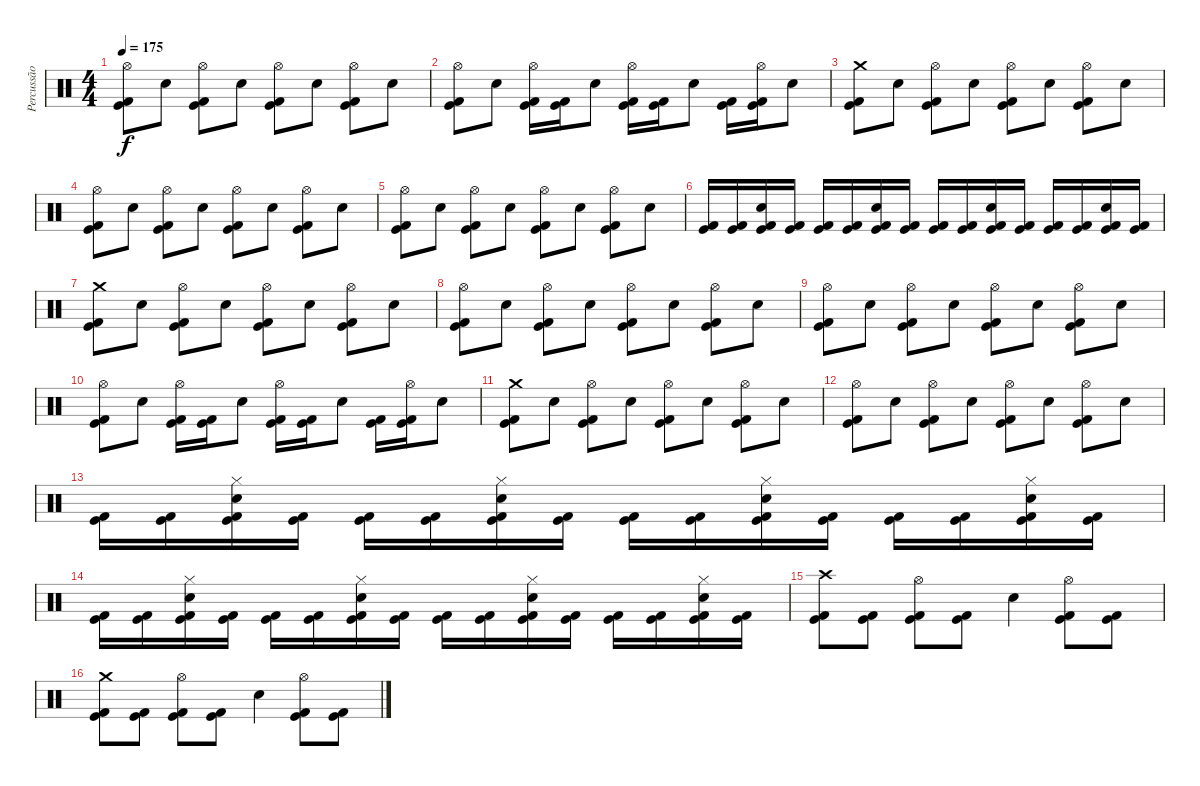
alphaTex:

\track ("Percussão" "Percussão") {instrument percussion}
\staff {score}
\articulation defaults
\ts (4 4)
\tempo 175
\clef neutral
\ks c
("Hi-Hat (open)" "Kick (hit) 2" "Kick (hit)").8{dy f} "Electric Snare (hit)".8 ("Hi-Hat (open)" "Kick (hit) 2" "Kick (hit)").8 "Electric Snare (hit)".8 ("Hi-Hat (open)" "Kick (hit) 2" "Kick (hit)").8 "Electric Snare (hit)".8 ("Hi-Hat (open)" "Kick (hit) 2" "Kick (hit)").8 "Electric Snare (hit)".8 |
("Hi-Hat (open)" "Kick (hit) 2" "Kick (hit)").8 "Electric Snare (hit)".8 ("Hi-Hat (open)" "Kick (hit) 2" "Kick (hit)").16 ("Kick (hit) 2" "Kick (hit)").16 "Electric Snare (hit)".8 ("Hi-Hat (open)" "Kick (hit) 2" "Kick (hit)").16 ("Kick (hit)" "Kick (hit) 2").16 "Electric Snare (hit)".8 ("Kick (hit)" "Kick (hit) 2").16 ("Hi-Hat (open)" "Kick (hit) 2" "Kick (hit)").16 "Electric Snare (hit)".8 |
("Crash medium (hit)" "Kick (hit) 2" "Kick (hit)").8 "Electric Snare (hit)".8 ("Hi-Hat (open)" "Kick (hit) 2" "Kick (hit)").8 "Electric Snare (hit)".8 ("Hi-Hat (open)" "Kick (hit) 2" "Kick (hit)").8 "Electric Snare (hit)".8 ("Hi-Hat (open)" "Kick (hit) 2" "Kick (hit)").8 "Electric Snare (hit)".8 |
("Hi-Hat (open)" "Kick (hit) 2" "Kick (hit)").8 "Electric Snare (hit)".8 ("Hi-Hat (open)" "Kick (hit) 2" "Kick (hit)").8 "Electric Snare (hit)".8 ("Hi-Hat (open)" "Kick (hit) 2" "Kick (hit)").8 "Electric Snare (hit)".8 ("Hi-Hat (open)" "Kick (hit) 2" "Kick (hit)").8 "Electric Snare (hit)".8 |
("Hi-Hat (open)" "Kick (hit) 2" "Kick (hit)").8 "Electric Snare (hit)".8 ("Hi-Hat (open)" "Kick (hit) 2" "Kick (hit)").8 "Electric Snare (hit)".8 ("Hi-Hat (open)" "Kick (hit) 2" "Kick (hit)").8 "Electric Snare (hit)".8 ("Hi-Hat (open)" "Kick (hit) 2" "Kick (hit)").8 "Electric Snare (hit)".8 |
("Kick (hit)" "Kick (hit) 2").16 ("Kick (hit)" "Kick (hit) 2").16 ("Electric Snare (hit)" "Kick (hit)" "Kick (hit) 2").16 ("Kick (hit)" "Kick (hit) 2").16 ("Kick (hit)" "Kick (hit) 2").16 ("Kick (hit)" "Kick (hit) 2").16 ("Electric Snare (hit)" "Kick (hit)" "Kick (hit) 2").16 ("Kick (hit)" "Kick (hit) 2").16 ("Kick (hit)" "Kick (hit) 2").16 ("Kick (hit)" "Kick (hit) 2").16 ("Electric Snare (hit)" "Kick (hit)" "Kick (hit) 2").16 ("Kick (hit)" "Kick (hit) 2").16 ("Kick (hit)" "Kick (hit) 2").16 ("Kick (hit)" "Kick (hit) 2").16 ("Electric Snare (hit)" "Kick (hit)" "Kick (hit) 2").16 ("Kick (hit)" "Kick (hit) 2").16 |
("Crash medium (hit)" "Kick (hit) 2" "Kick (hit)").8 "Electric Snare (hit)".8 ("Hi-Hat (open)" "Kick (hit) 2" "Kick (hit)").8 "Electric Snare (hit)".8 ("Hi-Hat (open)" "Kick (hit) 2" "Kick (hit)").8 "Electric Snare (hit)".8 ("Hi-Hat (open)" "Kick (hit) 2" "Kick (hit)").8 "Electric Snare (hit)".8 |
("Hi-Hat (open)" "Kick (hit) 2" "Kick (hit)").8 "Electric Snare (hit)".8 ("Hi-Hat (open)" "Kick (hit) 2" "Kick (hit)").8 "Electric Snare (hit)".8 ("Hi-Hat (open)" "Kick (hit) 2" "Kick (hit)").8 "Electric Snare (hit)".8 ("Hi-Hat (open)" "Kick (hit) 2" "Kick (hit)").8 "Electric Snare (hit)".8 |
("Hi-Hat (open)" "Kick (hit) 2" "Kick (hit)").8 "Electric Snare (hit)".8 ("Hi-Hat (open)" "Kick (hit) 2" "Kick (hit)").8 "Electric Snare (hit)".8 ("Hi-Hat (open)" "Kick (hit) 2" "Kick (hit)").8 "Electric Snare (hit)".8 ("Hi-Hat (open)" "Kick (hit) 2" "Kick (hit)").8 "Electric Snare (hit)".8 |
("Hi-Hat (open)" "Kick (hit) 2" "Kick (hit)").8 "Electric Snare (hit)".8 ("Hi-Hat (open)" "Kick (hit) 2" "Kick (hit)").16 ("Kick (hit) 2" "Kick (hit)").16 "Electric Snare (hit)".8 ("Hi-Hat (open)" "Kick (hit) 2" "Kick (hit)").16 ("Kick (hit)" "Kick (hit) 2").16 "Electric Snare (hit)".8 ("Kick (hit)" "Kick (hit) 2").16 ("Hi-Hat (open)" "Kick (hit) 2" "Kick (hit)").16 "Electric Snare (hit)".8 |
("Crash medium (hit)" "Kick (hit) 2" "Kick (hit)").8 "Electric Snare (hit)".8 ("Hi-Hat (open)" "Kick (hit) 2" "Kick (hit)").8 "Electric Snare (hit)".8 ("Hi-Hat (open)" "Kick (hit) 2" "Kick (hit)").8 "Electric Snare (hit)".8 ("Hi-Hat (open)" "Kick (hit) 2" "Kick (hit)").8 "Electric Snare (hit)".8 |
("Hi-Hat (open)" "Kick (hit) 2" "Kick (hit)").8 "Electric Snare (hit)".8 ("Hi-Hat (open)" "Kick (hit) 2" "Kick (hit)").8 "Electric Snare (hit)".8 ("Hi-Hat (open)" "Kick (hit) 2" "Kick (hit)").8 "Electric Snare (hit)".8 ("Hi-Hat (open)" "Kick (hit) 2" "Kick (hit)").8 "Electric Snare (hit)".8 |
("Kick (hit)" "Kick (hit) 2").16 ("Kick (hit)" "Kick (hit) 2").16 ("Hi-Hat (closed)" "Electric Snare (hit)" "Kick (hit)" "Kick (hit) 2").16 ("Kick (hit)" "Kick (hit) 2").16 ("Kick (hit)" "Kick (hit) 2").16 ("Kick (hit)" "Kick (hit) 2").16 ("Hi-Hat (closed)" "Electric Snare (hit)" "Kick (hit)" "Kick (hit) 2").16 ("Kick (hit)" "Kick (hit) 2").16 ("Kick (hit)" "Kick (hit) 2").16 ("Kick (hit)" "Kick (hit) 2").16 ("Hi-Hat (closed)" "Electric Snare (hit)" "Kick (hit)" "Kick (hit) 2").16 ("Kick (hit)" "Kick (hit) 2").16 ("Kick (hit)" "Kick (hit) 2").16 ("Kick (hit)" "Kick (hit) 2").16 ("Hi-Hat (closed)" "Electric Snare (hit)" "Kick (hit)" "Kick (hit) 2").16 ("Kick (hit)" "Kick (hit) 2").16 |
("Kick (hit)" "Kick (hit) 2").16 ("Kick (hit)" "Kick (hit) 2").16 ("Hi-Hat (closed)" "Electric Snare (hit)" "Kick (hit)" "Kick (hit) 2").16 ("Kick (hit)" "Kick (hit) 2").16 ("Kick (hit)" "Kick (hit) 2").16 ("Kick (hit)" "Kick (hit) 2").16 ("Hi-Hat (closed)" "Electric Snare (hit)" "Kick (hit)" "Kick (hit) 2").16 ("Kick (hit)" "Kick (hit) 2").16 ("Kick (hit)" "Kick (hit) 2").16 ("Kick (hit)" "Kick (hit) 2").16 ("Hi-Hat (closed)" "Electric Snare (hit)" "Kick (hit)" "Kick (hit) 2").16 ("Kick (hit)" "Kick (hit) 2").16 ("Kick (hit)" "Kick (hit) 2").16 ("Kick (hit)" "Kick (hit) 2").16 ("Hi-Hat (closed)" "Electric Snare (hit)" "Kick (hit)" "Kick (hit) 2").16 ("Kick (hit)" "Kick (hit) 2").16 |
("Crash high (hit)" "Kick (hit) 2" "Kick (hit)").8 ("Kick (hit) 2" "Kick (hit)").8 ("Hi-Hat (open)" "Kick (hit) 2" "Kick (hit)").8 ("Kick (hit) 2" "Kick (hit)").8 "Electric Snare (hit)".4 ("Hi-Hat (open)" "Kick (hit) 2" "Kick (hit)").8 ("Kick (hit) 2" "Kick (hit)").8 |
("Crash medium (hit)" "Kick (hit) 2" "Kick (hit)").8 ("Kick (hit) 2" "Kick (hit)").8 ("Hi-Hat (open)" "Kick (hit) 2" "Kick (hit)").8 ("Kick (hit) 2" "Kick (hit)").8 "Electric Snare (hit)".4 ("Hi-Hat (open)" "Kick (hit) 2" "Kick (hit)").8 ("Kick (hit) 2" "Kick (hit)").8
